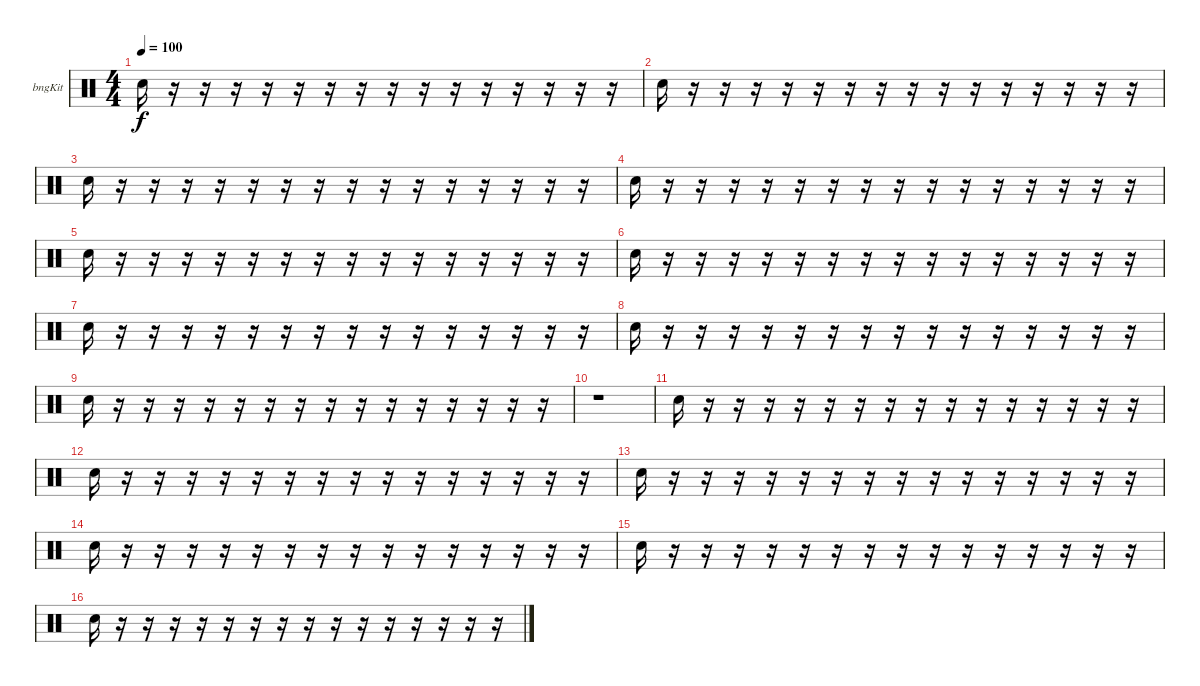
\bracketExtendMode groupsimilarinstruments
\firstSystemTrackNameOrientation horizontal
\otherSystemsTrackNameOrientation horizontal
\track ("Bongos" "bngKit") {instrument percussion}
\staff {score}
\articulation defaults
\ts (4 4)
\tempo 100
\clef neutral
\ks c "Snare (hit) 2".16{dy f}
r.16 r.16 r.16 r.16 r.16 r.16 r.16 r.16 r.16 r.16 r.16 r.16 r.16 r.16 r.16 |
"Snare (hit) 2".16 r.16 r.16 r.16 r.16 r.16 r.16 r.16 r.16 r.16 r.16 r.16 r.16 r.16 r.16 r.16 |
"Snare (hit) 2".16 r.16 r.16 r.16 r.16 r.16 r.16 r.16 r.16 r.16 r.16 r.16 r.16 r.16 r.16 r.16 |
"Snare (hit) 2".16 r.16 r.16 r.16 r.16 r.16 r.16 r.16 r.16 r.16 r.16 r.16 r.16 r.16 r.16 r.16 |
"Snare (hit) 2".16 r.16 r.16 r.16 r.16 r.16 r.16 r.16 r.16 r.16 r.16 r.16 r.16 r.16 r.16 r.16 |
"Snare (hit) 2".16 r.16 r.16 r.16 r.16 r.16 r.16 r.16 r.16 r.16 r.16 r.16 r.16 r.16 r.16 r.16 |
"Snare (hit) 2".16 r.16 r.16 r.16 r.16 r.16 r.16 r.16 r.16 r.16 r.16 r.16 r.16 r.16 r.16 r.16 |
"Snare (hit) 2".16 r.16 r.16 r.16 r.16 r.16 r.16 r.16 r.16 r.16 r.16 r.16 r.16 r.16 r.16 r.16 |
"Snare (hit) 2".16 r.16 r.16 r.16 r.16 r.16 r.16 r.16 r.16 r.16 r.16 r.16 r.16 r.16 r.16 r.16 |
r.1 |
"Snare (hit) 2".16 r.16 r.16 r.16 r.16 r.16 r.16 r.16 r.16 r.16 r.16 r.16 r.16 r.16 r.16 r.16 |
"Snare (hit) 2".16 r.16 r.16 r.16 r.16 r.16 r.16 r.16 r.16 r.16 r.16 r.16 r.16 r.16 r.16 r.16 |
"Snare (hit) 2".16 r.16 r.16 r.16 r.16 r.16 r.16 r.16 r.16 r.16 r.16 r.16 r.16 r.16 r.16 r.16 |
"Snare (hit) 2".16 r.16 r.16 r.16 r.16 r.16 r.16 r.16 r.16 r.16 r.16 r.16 r.16 r.16 r.16 r.16 |
"Snare (hit) 2".16 r.16 r.16 r.16 r.16 r.16 r.16 r.16 r.16 r.16 r.16 r.16 r.16 r.16 r.16 r.16 |
"Snare (hit) 2".16 r.16 r.16 r.16 r.16 r.16 r.16 r.16 r.16 r.16 r.16 r.16 r.16 r.16 r.16 r.16
